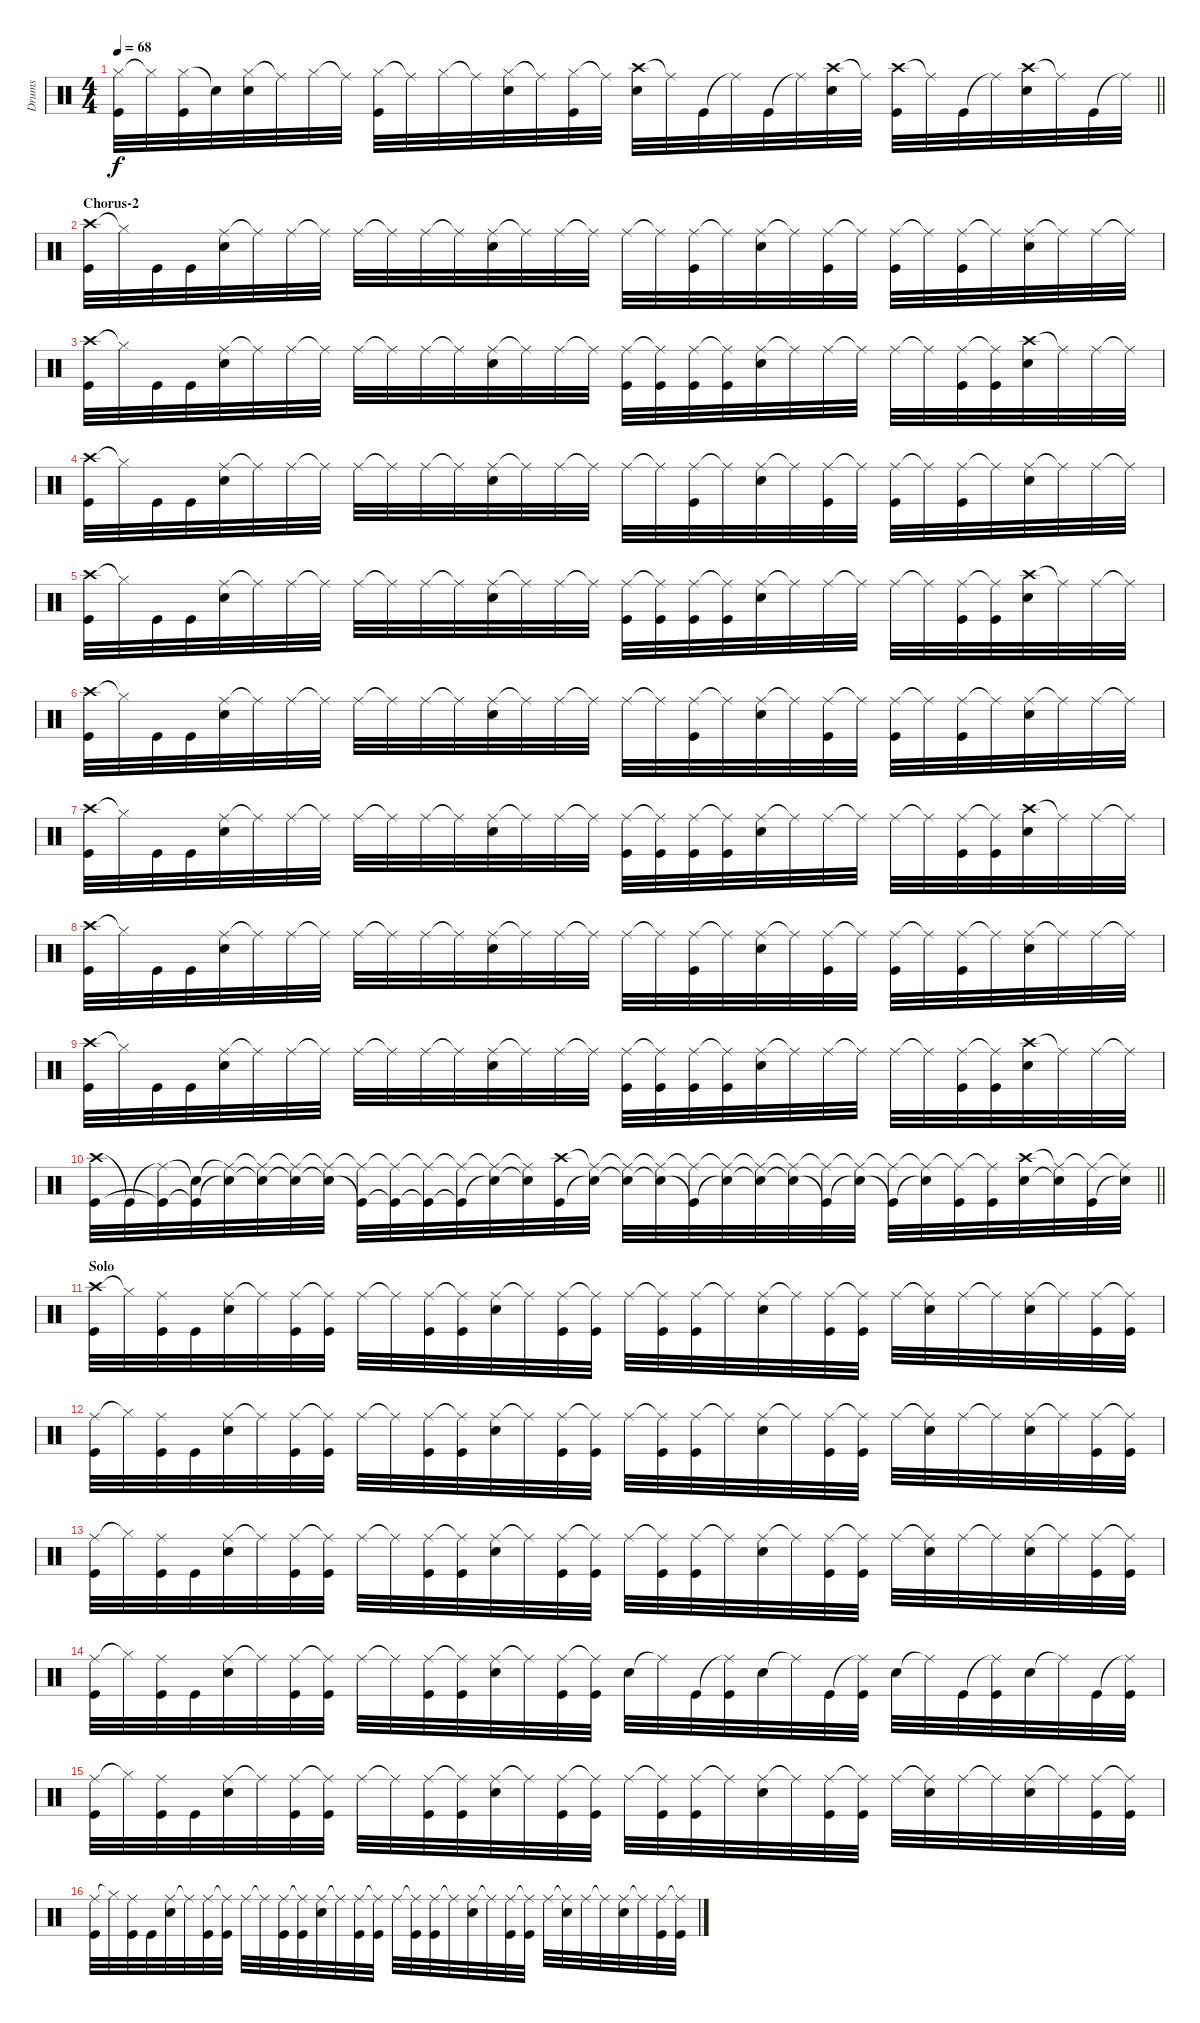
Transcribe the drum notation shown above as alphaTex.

\track ("Drums" "Drums") {instrument percussion}
\staff {score}
\articulation defaults
\ts (4 4)
\tempo 68
\clef neutral
\barLineRight lightlight
\ks c
("Hi-Hat (closed)" "Kick (hit)").32{dy f} "Hi-Hat (closed)"{t}.32 ("Hi-Hat (closed)" "Kick (hit)").32 "Snare (hit)"{t}.32 ("Hi-Hat (closed)" "Electric Snare (hit)").32 "Ride (middle)"{t}.32 "Hi-Hat (closed)".32 "Ride (middle)"{t}.32 ("Hi-Hat (closed)" "Kick (hit)").32 "Ride (middle)"{t}.32 "Hi-Hat (closed)".32 "Ride (middle)"{t}.32 ("Hi-Hat (closed)" "Electric Snare (hit)").32 "Ride (middle)"{t}.32 ("Hi-Hat (closed)" "Kick (hit)").32 "Ride (middle)"{t}.32 ("Crash high (hit)" "Electric Snare (hit)").32 "Ride (middle)"{t}.32 "Kick (hit)".32 "Ride (middle)"{t}.32 "Kick (hit)".32 "Ride (middle)"{t}.32 ("Crash high (hit)" "Electric Snare (hit)").32 "Ride (middle)"{t}.32 ("Crash high (hit)" "Kick (hit)").32 "Ride (middle)"{t}.32 "Kick (hit)".32 "Ride (middle)"{t}.32 ("Crash high (hit)" "Electric Snare (hit)").32 "Ride (middle)"{t}.32 "Kick (hit)".32 "Ride (middle)"{t}.32 |
\section ("" "Chorus-2")
("Crash high (hit)" "Kick (hit)").32 "Hi-Hat (closed)"{t}.32 "Kick (hit)".32 "Kick (hit)".32 ("Ride (middle)" "Electric Snare (hit)").32 "Ride (middle)"{t}.32 "Ride (middle)".32 "Ride (middle)"{t}.32 "Ride (middle)".32 "Ride (middle)"{t}.32 "Ride (middle)".32 "Ride (middle)"{t}.32 ("Ride (middle)" "Electric Snare (hit)").32 "Ride (middle)"{t}.32 "Ride (middle)".32 "Ride (middle)"{t}.32 "Ride (middle)".32 "Ride (middle)"{t}.32 ("Ride (middle)" "Kick (hit)").32 "Ride (middle)"{t}.32 ("Ride (middle)" "Electric Snare (hit)").32 "Ride (middle)"{t}.32 ("Ride (middle)" "Kick (hit)").32 "Ride (middle)"{t}.32 ("Ride (middle)" "Kick (hit)").32 "Ride (middle)"{t}.32 ("Ride (middle)" "Kick (hit)").32 "Ride (middle)"{t}.32 ("Ride (middle)" "Electric Snare (hit)").32 "Ride (middle)"{t}.32 "Ride (middle)".32 "Ride (middle)"{t}.32 |
("Crash high (hit)" "Kick (hit)").32 "Hi-Hat (closed)"{t}.32 "Kick (hit)".32 "Kick (hit)".32 ("Ride (middle)" "Electric Snare (hit)").32 "Ride (middle)"{t}.32 "Ride (middle)".32 "Ride (middle)"{t}.32 "Ride (middle)".32 "Ride (middle)"{t}.32 "Ride (middle)".32 "Ride (middle)"{t}.32 ("Ride (middle)" "Electric Snare (hit)").32 "Ride (middle)"{t}.32 "Ride (middle)".32 "Ride (middle)"{t}.32 ("Ride (middle)" "Kick (hit)").32 ("Ride (middle)"{t} "Kick (hit)").32 ("Ride (middle)" "Kick (hit)").32 ("Ride (middle)"{t} "Kick (hit)").32 ("Ride (middle)" "Electric Snare (hit)").32 "Ride (middle)"{t}.32 "Ride (middle)".32 "Ride (middle)"{t}.32 "Ride (middle)".32 "Ride (middle)"{t}.32 ("Ride (middle)" "Kick (hit)").32 ("Ride (middle)"{t} "Kick (hit)").32 ("Crash high (hit)" "Electric Snare (hit)").32 "Ride (middle)"{t}.32 "Ride (middle)".32 "Ride (middle)"{t}.32 |
("Crash high (hit)" "Kick (hit)").32 "Hi-Hat (closed)"{t}.32 "Kick (hit)".32 "Kick (hit)".32 ("Ride (middle)" "Electric Snare (hit)").32 "Ride (middle)"{t}.32 "Ride (middle)".32 "Ride (middle)"{t}.32 "Ride (middle)".32 "Ride (middle)"{t}.32 "Ride (middle)".32 "Ride (middle)"{t}.32 ("Ride (middle)" "Electric Snare (hit)").32 "Ride (middle)"{t}.32 "Ride (middle)".32 "Ride (middle)"{t}.32 "Ride (middle)".32 "Ride (middle)"{t}.32 ("Ride (middle)" "Kick (hit)").32 "Ride (middle)"{t}.32 ("Ride (middle)" "Electric Snare (hit)").32 "Ride (middle)"{t}.32 ("Ride (middle)" "Kick (hit)").32 "Ride (middle)"{t}.32 ("Ride (middle)" "Kick (hit)").32 "Ride (middle)"{t}.32 ("Ride (middle)" "Kick (hit)").32 "Ride (middle)"{t}.32 ("Ride (middle)" "Electric Snare (hit)").32 "Ride (middle)"{t}.32 "Ride (middle)".32 "Ride (middle)"{t}.32 |
("Crash high (hit)" "Kick (hit)").32 "Hi-Hat (closed)"{t}.32 "Kick (hit)".32 "Kick (hit)".32 ("Ride (middle)" "Electric Snare (hit)").32 "Ride (middle)"{t}.32 "Ride (middle)".32 "Ride (middle)"{t}.32 "Ride (middle)".32 "Ride (middle)"{t}.32 "Ride (middle)".32 "Ride (middle)"{t}.32 ("Ride (middle)" "Electric Snare (hit)").32 "Ride (middle)"{t}.32 "Ride (middle)".32 "Ride (middle)"{t}.32 ("Ride (middle)" "Kick (hit)").32 ("Ride (middle)"{t} "Kick (hit)").32 ("Ride (middle)" "Kick (hit)").32 ("Ride (middle)"{t} "Kick (hit)").32 ("Ride (middle)" "Electric Snare (hit)").32 "Ride (middle)"{t}.32 "Ride (middle)".32 "Ride (middle)"{t}.32 "Ride (middle)".32 "Ride (middle)"{t}.32 ("Ride (middle)" "Kick (hit)").32 ("Ride (middle)"{t} "Kick (hit)").32 ("Crash high (hit)" "Electric Snare (hit)").32 "Ride (middle)"{t}.32 "Ride (middle)".32 "Ride (middle)"{t}.32 |
("Crash high (hit)" "Kick (hit)").32 "Hi-Hat (closed)"{t}.32 "Kick (hit)".32 "Kick (hit)".32 ("Ride (middle)" "Electric Snare (hit)").32 "Ride (middle)"{t}.32 "Ride (middle)".32 "Ride (middle)"{t}.32 "Ride (middle)".32 "Ride (middle)"{t}.32 "Ride (middle)".32 "Ride (middle)"{t}.32 ("Ride (middle)" "Electric Snare (hit)").32 "Ride (middle)"{t}.32 "Ride (middle)".32 "Ride (middle)"{t}.32 "Ride (middle)".32 "Ride (middle)"{t}.32 ("Ride (middle)" "Kick (hit)").32 "Ride (middle)"{t}.32 ("Ride (middle)" "Electric Snare (hit)").32 "Ride (middle)"{t}.32 ("Ride (middle)" "Kick (hit)").32 "Ride (middle)"{t}.32 ("Ride (middle)" "Kick (hit)").32 "Ride (middle)"{t}.32 ("Ride (middle)" "Kick (hit)").32 "Ride (middle)"{t}.32 ("Ride (middle)" "Electric Snare (hit)").32 "Ride (middle)"{t}.32 "Ride (middle)".32 "Ride (middle)"{t}.32 |
("Crash high (hit)" "Kick (hit)").32 "Hi-Hat (closed)"{t}.32 "Kick (hit)".32 "Kick (hit)".32 ("Ride (middle)" "Electric Snare (hit)").32 "Ride (middle)"{t}.32 "Ride (middle)".32 "Ride (middle)"{t}.32 "Ride (middle)".32 "Ride (middle)"{t}.32 "Ride (middle)".32 "Ride (middle)"{t}.32 ("Ride (middle)" "Electric Snare (hit)").32 "Ride (middle)"{t}.32 "Ride (middle)".32 "Ride (middle)"{t}.32 ("Ride (middle)" "Kick (hit)").32 ("Ride (middle)"{t} "Kick (hit)").32 ("Ride (middle)" "Kick (hit)").32 ("Ride (middle)"{t} "Kick (hit)").32 ("Ride (middle)" "Electric Snare (hit)").32 "Ride (middle)"{t}.32 "Ride (middle)".32 "Ride (middle)"{t}.32 "Ride (middle)".32 "Ride (middle)"{t}.32 ("Ride (middle)" "Kick (hit)").32 ("Ride (middle)"{t} "Kick (hit)").32 ("Crash high (hit)" "Electric Snare (hit)").32 "Ride (middle)"{t}.32 "Ride (middle)".32 "Ride (middle)"{t}.32 |
("Crash high (hit)" "Kick (hit)").32 "Hi-Hat (closed)"{t}.32 "Kick (hit)".32 "Kick (hit)".32 ("Ride (middle)" "Electric Snare (hit)").32 "Ride (middle)"{t}.32 "Ride (middle)".32 "Ride (middle)"{t}.32 "Ride (middle)".32 "Ride (middle)"{t}.32 "Ride (middle)".32 "Ride (middle)"{t}.32 ("Ride (middle)" "Electric Snare (hit)").32 "Ride (middle)"{t}.32 "Ride (middle)".32 "Ride (middle)"{t}.32 "Ride (middle)".32 "Ride (middle)"{t}.32 ("Ride (middle)" "Kick (hit)").32 "Ride (middle)"{t}.32 ("Ride (middle)" "Electric Snare (hit)").32 "Ride (middle)"{t}.32 ("Ride (middle)" "Kick (hit)").32 "Ride (middle)"{t}.32 ("Ride (middle)" "Kick (hit)").32 "Ride (middle)"{t}.32 ("Ride (middle)" "Kick (hit)").32 "Ride (middle)"{t}.32 ("Ride (middle)" "Electric Snare (hit)").32 "Ride (middle)"{t}.32 "Ride (middle)".32 "Ride (middle)"{t}.32 |
("Crash high (hit)" "Kick (hit)").32 "Hi-Hat (closed)"{t}.32 "Kick (hit)".32 "Kick (hit)".32 ("Ride (middle)" "Electric Snare (hit)").32 "Ride (middle)"{t}.32 "Ride (middle)".32 "Ride (middle)"{t}.32 "Ride (middle)".32 "Ride (middle)"{t}.32 "Ride (middle)".32 "Ride (middle)"{t}.32 ("Ride (middle)" "Electric Snare (hit)").32 "Ride (middle)"{t}.32 "Ride (middle)".32 "Ride (middle)"{t}.32 ("Ride (middle)" "Kick (hit)").32 ("Ride (middle)"{t} "Kick (hit)").32 ("Ride (middle)" "Kick (hit)").32 ("Ride (middle)"{t} "Kick (hit)").32 ("Ride (middle)" "Electric Snare (hit)").32 "Ride (middle)"{t}.32 "Ride (middle)".32 "Ride (middle)"{t}.32 "Ride (middle)".32 "Ride (middle)"{t}.32 ("Ride (middle)" "Kick (hit)").32 ("Ride (middle)"{t} "Kick (hit)").32 ("Crash high (hit)" "Electric Snare (hit)").32 "Ride (middle)"{t}.32 "Ride (middle)".32 "Ride (middle)"{t}.32 |
\barLineRight lightlight
("Crash high (hit)" "Kick (hit)").32 "Kick (hit)"{t}.32 ("Ride (middle)"{t} "Kick (hit)"{t}).32 ("Snare (hit)"{t} "Kick (hit)"{t}).32 ("Ride (middle)"{t} "Electric Snare (hit)"{t}).32 ("Ride (middle)"{t} "Snare (hit)"{t}).32 ("Ride (middle)"{t} "Snare (hit)"{t}).32 ("Ride (middle)"{t} "Snare (hit)"{t}).32 ("Ride (middle)"{t} "Kick (hit)"{t}).32 ("Ride (middle)"{t} "Kick (hit)"{t}).32 ("Ride (middle)"{t} "Kick (hit)"{t}).32 ("Ride (middle)"{t} "Kick (hit)"{t}).32 ("Ride (middle)"{t} "Electric Snare (hit)"{t}).32 ("Ride (middle)"{t} "Snare (hit)"{t}).32 ("Crash high (hit)" "Kick (hit)").32 ("Ride (middle)"{t} "Snare (hit)"{t}).32 ("Ride (middle)"{t} "Snare (hit)"{t}).32 ("Ride (middle)"{t} "Snare (hit)"{t}).32 ("Ride (middle)"{t} "Kick (hit)"{t}).32 ("Ride (middle)"{t} "Snare (hit)"{t}).32 ("Ride (middle)"{t} "Electric Snare (hit)"{t}).32 ("Ride (middle)"{t} "Snare (hit)"{t}).32 ("Ride (middle)"{t} "Kick (hit)"{t}).32 ("Ride (middle)"{t} "Snare (hit)"{t}).32 ("Ride (middle)"{t} "Kick (hit)"{t}).32 ("Ride (middle)"{t} "Snare (hit)"{t}).32 ("Ride (middle)"{t} "Kick (hit)").32 ("Ride (middle)"{t} "Kick (hit)").32 ("Crash high (hit)" "Electric Snare (hit)").32 ("Ride (middle)"{t} "Snare (hit)"{t}).32 ("Ride (middle)"{t} "Kick (hit)").32 ("Ride (middle)"{t} "Snare (hit)"{t}).32 |
\section ("" "Solo")
("Crash high (hit)" "Kick (hit)").32 "Hi-Hat (closed)"{t}.32 ("Ride (middle)" "Kick (hit)").32 "Kick (hit)".32 ("Ride (middle)" "Electric Snare (hit)").32 "Ride (middle)"{t}.32 ("Ride (middle)" "Kick (hit)").32 ("Ride (middle)"{t} "Kick (hit)").32 "Ride (middle)".32 "Ride (middle)"{t}.32 ("Ride (middle)" "Kick (hit)").32 ("Ride (middle)"{t} "Kick (hit)").32 ("Ride (middle)" "Electric Snare (hit)").32 "Ride (middle)"{t}.32 ("Ride (middle)" "Kick (hit)").32 ("Ride (middle)"{t} "Kick (hit)").32 "Ride (middle)".32 ("Ride (middle)"{t} "Kick (hit)").32 ("Ride (middle)" "Kick (hit)").32 "Ride (middle)"{t}.32 ("Ride (middle)" "Electric Snare (hit)").32 "Ride (middle)"{t}.32 ("Ride (middle)" "Kick (hit)").32 ("Ride (middle)"{t} "Kick (hit)").32 "Ride (middle)".32 ("Ride (middle)"{t} "Electric Snare (hit)").32 "Ride (middle)".32 "Ride (middle)"{t}.32 ("Ride (middle)" "Electric Snare (hit)").32 "Ride (middle)"{t}.32 ("Ride (middle)" "Kick (hit)").32 ("Ride (middle)"{t} "Kick (hit)").32 |
("Ride (middle)" "Kick (hit)").32 "Hi-Hat (closed)"{t}.32 ("Ride (middle)" "Kick (hit)").32 "Kick (hit)".32 ("Ride (middle)" "Electric Snare (hit)").32 "Ride (middle)"{t}.32 ("Ride (middle)" "Kick (hit)").32 ("Ride (middle)"{t} "Kick (hit)").32 "Ride (middle)".32 "Ride (middle)"{t}.32 ("Ride (middle)" "Kick (hit)").32 ("Ride (middle)"{t} "Kick (hit)").32 ("Ride (middle)" "Electric Snare (hit)").32 "Ride (middle)"{t}.32 ("Ride (middle)" "Kick (hit)").32 ("Ride (middle)"{t} "Kick (hit)").32 "Ride (middle)".32 ("Ride (middle)"{t} "Kick (hit)").32 ("Ride (middle)" "Kick (hit)").32 "Ride (middle)"{t}.32 ("Ride (middle)" "Electric Snare (hit)").32 "Ride (middle)"{t}.32 ("Ride (middle)" "Kick (hit)").32 ("Ride (middle)"{t} "Kick (hit)").32 "Ride (middle)".32 ("Ride (middle)"{t} "Electric Snare (hit)").32 "Ride (middle)".32 "Ride (middle)"{t}.32 ("Ride (middle)" "Electric Snare (hit)").32 "Ride (middle)"{t}.32 ("Ride (middle)" "Kick (hit)").32 ("Ride (middle)"{t} "Kick (hit)").32 |
("Ride (middle)" "Kick (hit)").32 "Hi-Hat (closed)"{t}.32 ("Ride (middle)" "Kick (hit)").32 "Kick (hit)".32 ("Ride (middle)" "Electric Snare (hit)").32 "Ride (middle)"{t}.32 ("Ride (middle)" "Kick (hit)").32 ("Ride (middle)"{t} "Kick (hit)").32 "Ride (middle)".32 "Ride (middle)"{t}.32 ("Ride (middle)" "Kick (hit)").32 ("Ride (middle)"{t} "Kick (hit)").32 ("Ride (middle)" "Electric Snare (hit)").32 "Ride (middle)"{t}.32 ("Ride (middle)" "Kick (hit)").32 ("Ride (middle)"{t} "Kick (hit)").32 "Ride (middle)".32 ("Ride (middle)"{t} "Kick (hit)").32 ("Ride (middle)" "Kick (hit)").32 "Ride (middle)"{t}.32 ("Ride (middle)" "Electric Snare (hit)").32 "Ride (middle)"{t}.32 ("Ride (middle)" "Kick (hit)").32 ("Ride (middle)"{t} "Kick (hit)").32 "Ride (middle)".32 ("Ride (middle)"{t} "Electric Snare (hit)").32 "Ride (middle)".32 "Ride (middle)"{t}.32 ("Ride (middle)" "Electric Snare (hit)").32 "Ride (middle)"{t}.32 ("Ride (middle)" "Kick (hit)").32 ("Ride (middle)"{t} "Kick (hit)").32 |
("Ride (middle)" "Kick (hit)").32 "Hi-Hat (closed)"{t}.32 ("Ride (middle)" "Kick (hit)").32 "Kick (hit)".32 ("Ride (middle)" "Electric Snare (hit)").32 "Ride (middle)"{t}.32 ("Ride (middle)" "Kick (hit)").32 ("Ride (middle)"{t} "Kick (hit)").32 "Ride (middle)".32 "Ride (middle)"{t}.32 ("Ride (middle)" "Kick (hit)").32 ("Ride (middle)"{t} "Kick (hit)").32 ("Ride (middle)" "Electric Snare (hit)").32 "Ride (middle)"{t}.32 ("Ride (middle)" "Kick (hit)").32 ("Ride (middle)"{t} "Kick (hit)").32 "Electric Snare (hit)".32 "Ride (middle)"{t}.32 "Kick (hit)".32 ("Ride (middle)"{t} "Kick (hit)").32 "Electric Snare (hit)".32 "Ride (middle)"{t}.32 "Kick (hit)".32 ("Ride (middle)"{t} "Kick (hit)").32 "Electric Snare (hit)".32 "Ride (middle)"{t}.32 "Kick (hit)".32 ("Ride (middle)"{t} "Kick (hit)").32 "Electric Snare (hit)".32 "Ride (middle)"{t}.32 "Kick (hit)".32 ("Ride (middle)"{t} "Kick (hit)").32 |
("Ride (middle)" "Kick (hit)").32 "Hi-Hat (closed)"{t}.32 ("Ride (middle)" "Kick (hit)").32 "Kick (hit)".32 ("Ride (middle)" "Electric Snare (hit)").32 "Ride (middle)"{t}.32 ("Ride (middle)" "Kick (hit)").32 ("Ride (middle)"{t} "Kick (hit)").32 "Ride (middle)".32 "Ride (middle)"{t}.32 ("Ride (middle)" "Kick (hit)").32 ("Ride (middle)"{t} "Kick (hit)").32 ("Ride (middle)" "Electric Snare (hit)").32 "Ride (middle)"{t}.32 ("Ride (middle)" "Kick (hit)").32 ("Ride (middle)"{t} "Kick (hit)").32 "Ride (middle)".32 ("Ride (middle)"{t} "Kick (hit)").32 ("Ride (middle)" "Kick (hit)").32 "Ride (middle)"{t}.32 ("Ride (middle)" "Electric Snare (hit)").32 "Ride (middle)"{t}.32 ("Ride (middle)" "Kick (hit)").32 ("Ride (middle)"{t} "Kick (hit)").32 "Ride (middle)".32 ("Ride (middle)"{t} "Electric Snare (hit)").32 "Ride (middle)".32 "Ride (middle)"{t}.32 ("Ride (middle)" "Electric Snare (hit)").32 "Ride (middle)"{t}.32 ("Ride (middle)" "Kick (hit)").32 ("Ride (middle)"{t} "Kick (hit)").32 |
("Ride (middle)" "Kick (hit)").32 "Hi-Hat (closed)"{t}.32 ("Ride (middle)" "Kick (hit)").32 "Kick (hit)".32 ("Ride (middle)" "Electric Snare (hit)").32 "Ride (middle)"{t}.32 ("Ride (middle)" "Kick (hit)").32 ("Ride (middle)"{t} "Kick (hit)").32 "Ride (middle)".32 "Ride (middle)"{t}.32 ("Ride (middle)" "Kick (hit)").32 ("Ride (middle)"{t} "Kick (hit)").32 ("Ride (middle)" "Electric Snare (hit)").32 "Ride (middle)"{t}.32 ("Ride (middle)" "Kick (hit)").32 ("Ride (middle)"{t} "Kick (hit)").32 "Ride (middle)".32 ("Ride (middle)"{t} "Kick (hit)").32 ("Ride (middle)" "Kick (hit)").32 "Ride (middle)"{t}.32 ("Ride (middle)" "Electric Snare (hit)").32 "Ride (middle)"{t}.32 ("Ride (middle)" "Kick (hit)").32 ("Ride (middle)"{t} "Kick (hit)").32 "Ride (middle)".32 ("Ride (middle)"{t} "Electric Snare (hit)").32 "Ride (middle)".32 "Ride (middle)"{t}.32 ("Ride (middle)" "Electric Snare (hit)").32 "Ride (middle)"{t}.32 ("Ride (middle)" "Kick (hit)").32 ("Ride (middle)"{t} "Kick (hit)").32
